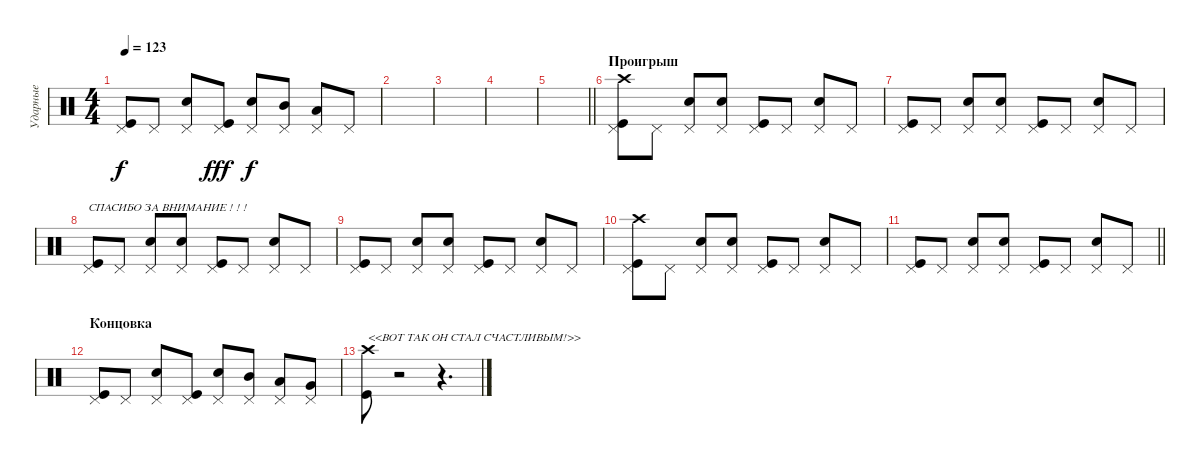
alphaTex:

\track ("Ударные" "Ударные") {instrument percussion}
\staff {score}
\articulation defaults
\ts (4 4)
\tempo 123
\clef neutral
\ks c
("Kick (hit)" "Pedal Hi-Hat (hit)").8{dy f} "Pedal Hi-Hat (hit)".8 ("Pedal Hi-Hat (hit)" "Snare (hit) 2").8 ("Kick (hit)" "Pedal Hi-Hat (hit)").8{dy fff} ("Pedal Hi-Hat (hit)" "Snare (hit) 2").8{dy f} ("Pedal Hi-Hat (hit)" "Mid Tom (hit)").8 ("Pedal Hi-Hat (hit)" "Low Tom (hit)").8 "Pedal Hi-Hat (hit)".8 |
|
|
|
\barLineRight lightlight
|
\section ("" "Проигрыш")
("Kick (hit)" "Pedal Hi-Hat (hit)" "Crash high (hit)").8 "Pedal Hi-Hat (hit)".8 ("Pedal Hi-Hat (hit)" "Snare (hit) 2").8 ("Pedal Hi-Hat (hit)" "Snare (hit) 2").8 ("Kick (hit)" "Pedal Hi-Hat (hit)").8 "Pedal Hi-Hat (hit)".8 ("Pedal Hi-Hat (hit)" "Snare (hit) 2").8 "Pedal Hi-Hat (hit)".8 |
("Kick (hit)" "Pedal Hi-Hat (hit)").8 "Pedal Hi-Hat (hit)".8 ("Pedal Hi-Hat (hit)" "Snare (hit) 2").8 ("Pedal Hi-Hat (hit)" "Snare (hit) 2").8 ("Kick (hit)" "Pedal Hi-Hat (hit)").8 "Pedal Hi-Hat (hit)".8 ("Pedal Hi-Hat (hit)" "Snare (hit) 2").8 "Pedal Hi-Hat (hit)".8 |
("Kick (hit)" "Pedal Hi-Hat (hit)").8{txt "СПАСИБО ЗА ВНИМАНИЕ ! ! !"} "Pedal Hi-Hat (hit)".8 ("Pedal Hi-Hat (hit)" "Snare (hit) 2").8 ("Pedal Hi-Hat (hit)" "Snare (hit) 2").8 ("Kick (hit)" "Pedal Hi-Hat (hit)").8 "Pedal Hi-Hat (hit)".8 ("Pedal Hi-Hat (hit)" "Snare (hit) 2").8 "Pedal Hi-Hat (hit)".8 |
("Kick (hit)" "Pedal Hi-Hat (hit)").8 "Pedal Hi-Hat (hit)".8 ("Pedal Hi-Hat (hit)" "Snare (hit) 2").8 ("Pedal Hi-Hat (hit)" "Snare (hit) 2").8 ("Kick (hit)" "Pedal Hi-Hat (hit)").8 "Pedal Hi-Hat (hit)".8 ("Pedal Hi-Hat (hit)" "Snare (hit) 2").8 "Pedal Hi-Hat (hit)".8 |
("Kick (hit)" "Pedal Hi-Hat (hit)" "Crash high (hit)").8 "Pedal Hi-Hat (hit)".8 ("Pedal Hi-Hat (hit)" "Snare (hit) 2").8 ("Pedal Hi-Hat (hit)" "Snare (hit) 2").8 ("Kick (hit)" "Pedal Hi-Hat (hit)").8 "Pedal Hi-Hat (hit)".8 ("Pedal Hi-Hat (hit)" "Snare (hit) 2").8 "Pedal Hi-Hat (hit)".8 |
\barLineRight lightlight
("Kick (hit)" "Pedal Hi-Hat (hit)").8 "Pedal Hi-Hat (hit)".8 ("Pedal Hi-Hat (hit)" "Snare (hit) 2").8 ("Pedal Hi-Hat (hit)" "Snare (hit) 2").8 ("Kick (hit)" "Pedal Hi-Hat (hit)").8 "Pedal Hi-Hat (hit)".8 ("Pedal Hi-Hat (hit)" "Snare (hit) 2").8 "Pedal Hi-Hat (hit)".8 |
\section ("" "Концовка")
("Kick (hit)" "Pedal Hi-Hat (hit)").8 "Pedal Hi-Hat (hit)".8 ("Pedal Hi-Hat (hit)" "Snare (hit) 2").8 ("Kick (hit)" "Pedal Hi-Hat (hit)").8 ("Pedal Hi-Hat (hit)" "Snare (hit) 2").8 ("Pedal Hi-Hat (hit)" "Mid Tom (hit)").8 ("Pedal Hi-Hat (hit)" "Low Tom (hit)").8 ("Pedal Hi-Hat (hit)" "Very Low Tom (hit)").8 |
("Kick (hit)" "Crash high (hit)").8{txt "<<ВОТ ТАК ОН СТАЛ СЧАСТЛИВЫМ!>>"} r.2 r.4{d}
